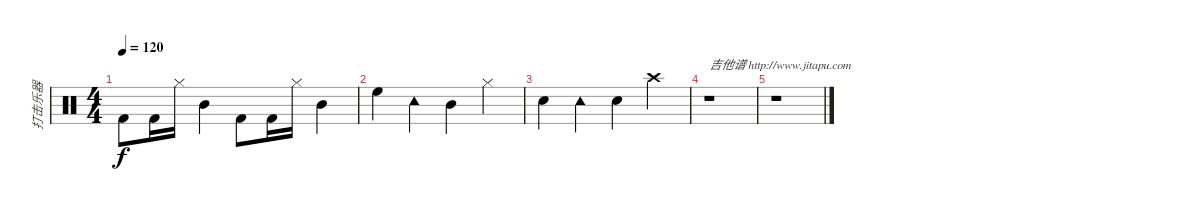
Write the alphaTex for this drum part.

\track ("打击乐器" "打击乐器") {instrument percussion}
\staff {score}
\articulation defaults
\ts (4 4)
\tempo 120
\clef neutral
\ks c "Kick (hit) 2".8{dy f} "Kick (hit) 2".16 "Hi-Hat (closed)".16 "Mid Tom (hit)".4 "Kick (hit) 2".8 "Kick (hit) 2".16 "Hi-Hat (closed)".16 "Mid Tom (hit)".4
|
"High Floor Tom (hit)".4 "Tambourine (hit)".4 "Mid Tom (hit)".4 "Hi-Hat (closed)".4 |
"Snare (hit) 2".4 "Tambourine (hit)".4 "Snare (hit) 2".4 "Crash high (hit)".4 |
r.1{txt "吉他谱 http://www.jitapu.com"} |
r.1
